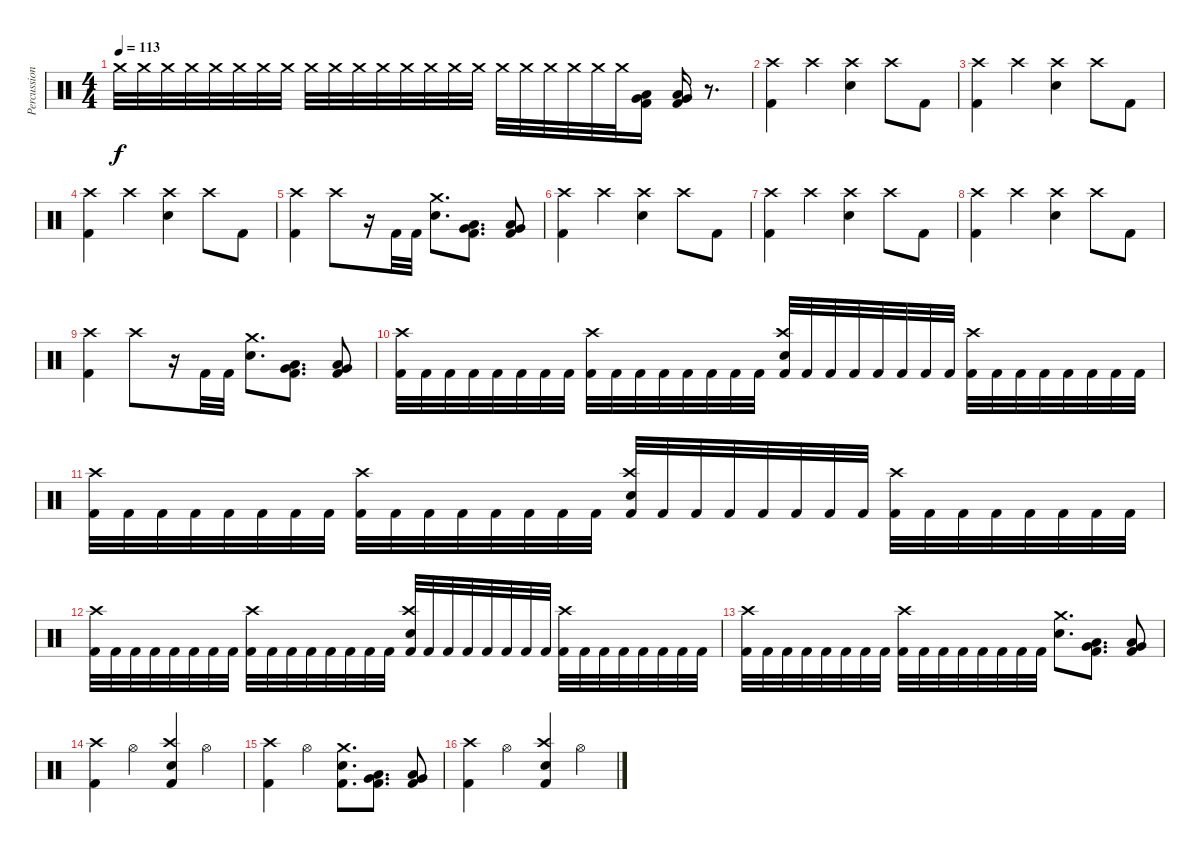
\track ("Percussion" "Percussion") {instrument percussion}
\staff {score}
\articulation defaults
\ts (4 4)
\tempo 113
\clef neutral
\ks c "Crash medium (hit)".32{dy f volume 16} "Crash medium (hit)".32 "Crash medium (hit)".32 "Crash medium (hit)".32 "Crash medium (hit)".32 "Crash medium (hit)".32 "Crash medium (hit)".32 "Crash medium (hit)".32 "Crash medium (hit)".32 "Crash medium (hit)".32 "Crash medium (hit)".32 "Crash medium (hit)".32 "Crash medium (hit)".32 "Crash medium (hit)".32 "Crash medium (hit)".32 "Crash medium (hit)".32 "Crash medium (hit)".32 "Crash medium (hit)".32 "Crash medium (hit)".32 "Crash medium (hit)".32 "Crash medium (hit)".32 "Crash medium (hit)".32
("Kick (hit) 2" "Very Low Tom (hit)" "Low Tom (hit)").16 ("Kick (hit) 2" "Low Floor Tom (hit)" "Very Low Tom (hit)").16 r.8{d} |
("Kick (hit) 2" "Crash high (hit)").4 "Crash high (hit)".4 ("Electric Snare (hit)" "Crash high (hit)").4 "Crash high (hit)".8 "Kick (hit) 2".8 |
("Kick (hit) 2" "Crash high (hit)").4 "Crash high (hit)".4 ("Electric Snare (hit)" "Crash high (hit)").4 "Crash high (hit)".8 "Kick (hit) 2".8 |
("Kick (hit) 2" "Crash high (hit)").4 "Crash high (hit)".4 ("Electric Snare (hit)" "Crash high (hit)").4 "Crash high (hit)".8 "Kick (hit) 2".8 |
("Kick (hit) 2" "Crash high (hit)").4 "Crash high (hit)".8 r.16 "Kick (hit) 2".32 "Kick (hit) 2".32 ("Electric Snare (hit)" "Crash medium (hit)").8{d} ("Kick (hit) 2" "Low Tom (hit)" "Very Low Tom (hit)").8{d} ("Kick (hit) 2" "Very Low Tom (hit)" "Low Floor Tom (hit)").8 |
("Kick (hit) 2" "Crash high (hit)").4 "Crash high (hit)".4 ("Electric Snare (hit)" "Crash high (hit)").4 "Crash high (hit)".8 "Kick (hit) 2".8 |
("Kick (hit) 2" "Crash high (hit)").4 "Crash high (hit)".4 ("Electric Snare (hit)" "Crash high (hit)").4 "Crash high (hit)".8 "Kick (hit) 2".8 |
("Kick (hit) 2" "Crash high (hit)").4 "Crash high (hit)".4 ("Electric Snare (hit)" "Crash high (hit)").4 "Crash high (hit)".8 "Kick (hit) 2".8 |
("Kick (hit) 2" "Crash high (hit)").4 "Crash high (hit)".8 r.16 "Kick (hit) 2".32 "Kick (hit) 2".32 ("Electric Snare (hit)" "Crash medium (hit)").8{d} ("Kick (hit) 2" "Low Tom (hit)" "Very Low Tom (hit)").8{d} ("Kick (hit) 2" "Very Low Tom (hit)" "Low Floor Tom (hit)").8 |
("Kick (hit) 2" "Crash high (hit)").32 "Kick (hit) 2".32 "Kick (hit) 2".32 "Kick (hit) 2".32 "Kick (hit) 2".32 "Kick (hit) 2".32 "Kick (hit) 2".32 "Kick (hit) 2".32 ("Kick (hit) 2" "Crash high (hit)").32 "Kick (hit) 2".32 "Kick (hit) 2".32 "Kick (hit) 2".32 "Kick (hit) 2".32 "Kick (hit) 2".32 "Kick (hit) 2".32 "Kick (hit) 2".32 ("Kick (hit) 2" "Electric Snare (hit)" "Crash high (hit)").32 "Kick (hit) 2".32 "Kick (hit) 2".32 "Kick (hit) 2".32 "Kick (hit) 2".32 "Kick (hit) 2".32 "Kick (hit) 2".32 "Kick (hit) 2".32 ("Kick (hit) 2" "Crash high (hit)").32 "Kick (hit) 2".32 "Kick (hit) 2".32 "Kick (hit) 2".32 "Kick (hit) 2".32 "Kick (hit) 2".32 "Kick (hit) 2".32 "Kick (hit) 2".32 |
("Kick (hit) 2" "Crash high (hit)").32 "Kick (hit) 2".32 "Kick (hit) 2".32 "Kick (hit) 2".32 "Kick (hit) 2".32 "Kick (hit) 2".32 "Kick (hit) 2".32 "Kick (hit) 2".32 ("Kick (hit) 2" "Crash high (hit)").32 "Kick (hit) 2".32 "Kick (hit) 2".32 "Kick (hit) 2".32 "Kick (hit) 2".32 "Kick (hit) 2".32 "Kick (hit) 2".32 "Kick (hit) 2".32 ("Kick (hit) 2" "Electric Snare (hit)" "Crash high (hit)").32 "Kick (hit) 2".32 "Kick (hit) 2".32 "Kick (hit) 2".32 "Kick (hit) 2".32 "Kick (hit) 2".32 "Kick (hit) 2".32 "Kick (hit) 2".32 ("Kick (hit) 2" "Crash high (hit)").32 "Kick (hit) 2".32 "Kick (hit) 2".32 "Kick (hit) 2".32 "Kick (hit) 2".32 "Kick (hit) 2".32 "Kick (hit) 2".32 "Kick (hit) 2".32 |
("Kick (hit) 2" "Crash high (hit)").32 "Kick (hit) 2".32 "Kick (hit) 2".32 "Kick (hit) 2".32 "Kick (hit) 2".32 "Kick (hit) 2".32 "Kick (hit) 2".32 "Kick (hit) 2".32 ("Kick (hit) 2" "Crash high (hit)").32 "Kick (hit) 2".32 "Kick (hit) 2".32 "Kick (hit) 2".32 "Kick (hit) 2".32 "Kick (hit) 2".32 "Kick (hit) 2".32 "Kick (hit) 2".32 ("Kick (hit) 2" "Electric Snare (hit)" "Crash high (hit)").32 "Kick (hit) 2".32 "Kick (hit) 2".32 "Kick (hit) 2".32 "Kick (hit) 2".32 "Kick (hit) 2".32 "Kick (hit) 2".32 "Kick (hit) 2".32 ("Kick (hit) 2" "Crash high (hit)").32 "Kick (hit) 2".32 "Kick (hit) 2".32 "Kick (hit) 2".32 "Kick (hit) 2".32 "Kick (hit) 2".32 "Kick (hit) 2".32 "Kick (hit) 2".32 |
("Kick (hit) 2" "Crash high (hit)").32 "Kick (hit) 2".32 "Kick (hit) 2".32 "Kick (hit) 2".32 "Kick (hit) 2".32 "Kick (hit) 2".32 "Kick (hit) 2".32 "Kick (hit) 2".32 ("Kick (hit) 2" "Crash high (hit)").32 "Kick (hit) 2".32 "Kick (hit) 2".32 "Kick (hit) 2".32 "Kick (hit) 2".32 "Kick (hit) 2".32 "Kick (hit) 2".32 "Kick (hit) 2".32 ("Electric Snare (hit)" "Crash medium (hit)").8{d} ("Kick (hit) 2" "Low Tom (hit)" "Very Low Tom (hit)").8{d} ("Kick (hit) 2" "Very Low Tom (hit)" "Low Floor Tom (hit)").8 |
("Kick (hit) 2" "Crash high (hit)").4 "Hi-Hat (open)".4 ("Kick (hit) 2" "Electric Snare (hit)" "Crash high (hit)").4 "Hi-Hat (open)".4 |
("Kick (hit) 2" "Crash high (hit)").4 "Hi-Hat (open)".4 ("Kick (hit) 2" "Electric Snare (hit)" "Crash medium (hit)").8{d} ("Kick (hit) 2" "Low Tom (hit)" "Very Low Tom (hit)").8{d} ("Kick (hit) 2" "Very Low Tom (hit)" "Low Floor Tom (hit)").8 |
("Kick (hit) 2" "Crash high (hit)").4 "Hi-Hat (open)".4 ("Kick (hit) 2" "Electric Snare (hit)" "Crash high (hit)").4 "Hi-Hat (open)".4
